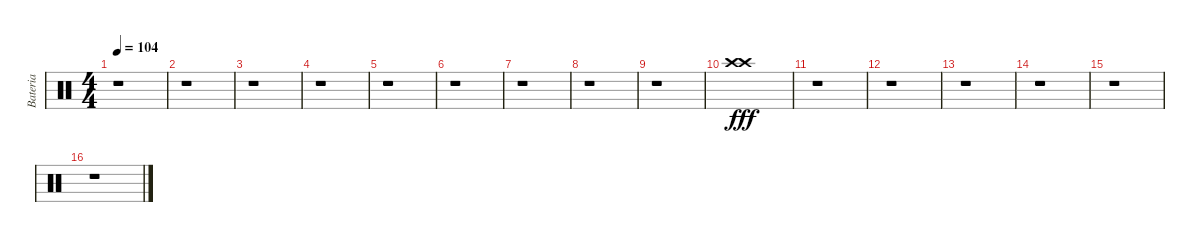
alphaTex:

\track ("Bateria" "Bateria") {instrument percussion}
\staff {score}
\articulation defaults
\ts (4 4)
\tempo 104
\clef neutral
\ks c
r.1{dy fff} |
r.1 |
r.1 |
r.1 |
r.1 |
r.1 |
r.1 |
r.1 |
r.1 |
("Crash high (hit)" "Crash high (hit)").1 |
r.1 |
r.1 |
r.1 |
r.1 |
r.1 |
r.1
